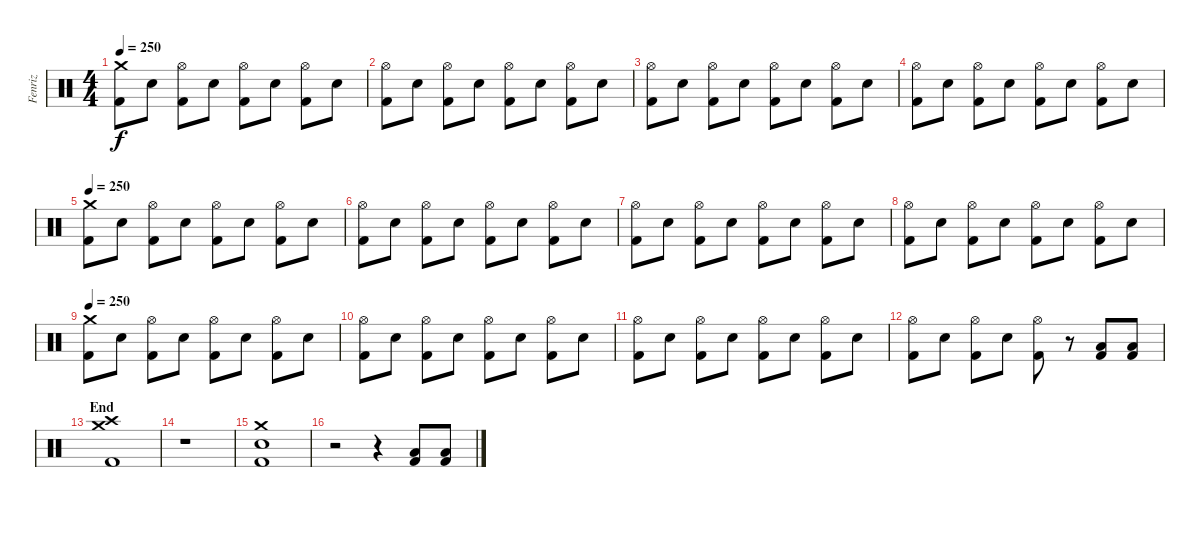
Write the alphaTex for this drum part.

\track ("Fenriz" "Fenriz") {instrument percussion}
\staff {score}
\articulation defaults
\ts (4 4)
\tempo 250
\clef neutral
\ks c
("Crash medium (hit)" "Kick (hit) 2").8{dy f} "Electric Snare (hit)".8 ("Hi-Hat (open)" "Kick (hit) 2").8 "Electric Snare (hit)".8 ("Hi-Hat (open)" "Kick (hit) 2").8 "Electric Snare (hit)".8 ("Hi-Hat (open)" "Kick (hit) 2").8 "Electric Snare (hit)".8 |
("Hi-Hat (open)" "Kick (hit) 2").8 "Electric Snare (hit)".8 ("Hi-Hat (open)" "Kick (hit) 2").8 "Electric Snare (hit)".8 ("Hi-Hat (open)" "Kick (hit) 2").8 "Electric Snare (hit)".8 ("Hi-Hat (open)" "Kick (hit) 2").8 "Electric Snare (hit)".8 |
("Hi-Hat (open)" "Kick (hit) 2").8 "Electric Snare (hit)".8 ("Hi-Hat (open)" "Kick (hit) 2").8 "Electric Snare (hit)".8 ("Hi-Hat (open)" "Kick (hit) 2").8 "Electric Snare (hit)".8 ("Hi-Hat (open)" "Kick (hit) 2").8 "Electric Snare (hit)".8 |
("Hi-Hat (open)" "Kick (hit) 2").8 "Electric Snare (hit)".8 ("Hi-Hat (open)" "Kick (hit) 2").8 "Electric Snare (hit)".8 ("Hi-Hat (open)" "Kick (hit) 2").8 "Electric Snare (hit)".8 ("Hi-Hat (open)" "Kick (hit) 2").8 "Electric Snare (hit)".8 |
\tempo 250
("Crash medium (hit)" "Kick (hit) 2").8 "Electric Snare (hit)".8 ("Hi-Hat (open)" "Kick (hit) 2").8 "Electric Snare (hit)".8 ("Hi-Hat (open)" "Kick (hit) 2").8 "Electric Snare (hit)".8 ("Hi-Hat (open)" "Kick (hit) 2").8 "Electric Snare (hit)".8 |
("Hi-Hat (open)" "Kick (hit) 2").8 "Electric Snare (hit)".8 ("Hi-Hat (open)" "Kick (hit) 2").8 "Electric Snare (hit)".8 ("Hi-Hat (open)" "Kick (hit) 2").8 "Electric Snare (hit)".8 ("Hi-Hat (open)" "Kick (hit) 2").8 "Electric Snare (hit)".8 |
("Hi-Hat (open)" "Kick (hit) 2").8 "Electric Snare (hit)".8 ("Hi-Hat (open)" "Kick (hit) 2").8 "Electric Snare (hit)".8 ("Hi-Hat (open)" "Kick (hit) 2").8 "Electric Snare (hit)".8 ("Hi-Hat (open)" "Kick (hit) 2").8 "Electric Snare (hit)".8 |
("Hi-Hat (open)" "Kick (hit) 2").8 "Electric Snare (hit)".8 ("Hi-Hat (open)" "Kick (hit) 2").8 "Electric Snare (hit)".8 ("Hi-Hat (open)" "Kick (hit) 2").8 "Electric Snare (hit)".8 ("Hi-Hat (open)" "Kick (hit) 2").8 "Electric Snare (hit)".8 |
\tempo 250
("Crash medium (hit)" "Kick (hit) 2").8 "Electric Snare (hit)".8 ("Hi-Hat (open)" "Kick (hit) 2").8 "Electric Snare (hit)".8 ("Hi-Hat (open)" "Kick (hit) 2").8 "Electric Snare (hit)".8 ("Hi-Hat (open)" "Kick (hit) 2").8 "Electric Snare (hit)".8 |
("Hi-Hat (open)" "Kick (hit) 2").8 "Electric Snare (hit)".8 ("Hi-Hat (open)" "Kick (hit) 2").8 "Electric Snare (hit)".8 ("Hi-Hat (open)" "Kick (hit) 2").8 "Electric Snare (hit)".8 ("Hi-Hat (open)" "Kick (hit) 2").8 "Electric Snare (hit)".8 |
("Hi-Hat (open)" "Kick (hit) 2").8 "Electric Snare (hit)".8 ("Hi-Hat (open)" "Kick (hit) 2").8 "Electric Snare (hit)".8 ("Hi-Hat (open)" "Kick (hit) 2").8 "Electric Snare (hit)".8 ("Hi-Hat (open)" "Kick (hit) 2").8 "Electric Snare (hit)".8 |
("Hi-Hat (open)" "Kick (hit) 2").8 "Electric Snare (hit)".8 ("Hi-Hat (open)" "Kick (hit) 2").8 "Electric Snare (hit)".8 ("Hi-Hat (open)" "Kick (hit) 2").8 r.8 ("Low Floor Tom (hit)" "Kick (hit) 2").8 ("Low Floor Tom (hit)" "Kick (hit) 2").8 |
\section ("" "End")
("Crash medium (hit)" "Crash high (hit)" "Kick (hit) 2").1 |
r.1 |
("Crash medium (hit)" "Electric Snare (hit)" "Kick (hit) 2").1 |
r.2 r.4 ("Low Floor Tom (hit)" "Kick (hit) 2").8 ("Low Floor Tom (hit)" "Kick (hit) 2").8
